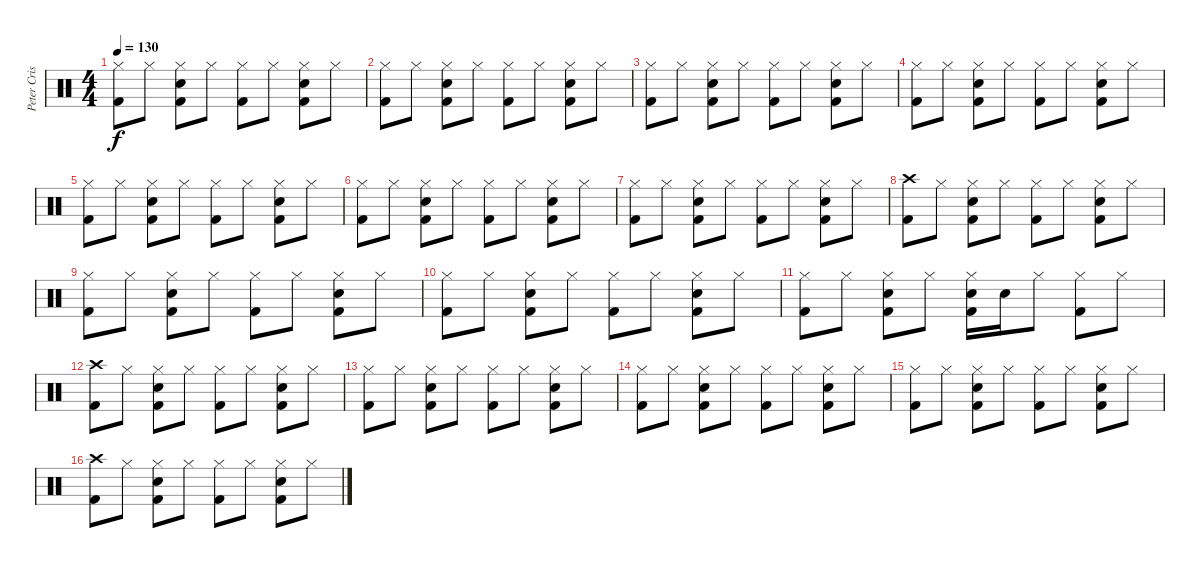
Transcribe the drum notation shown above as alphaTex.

\track ("Peter Criss" "Peter Cris") {instrument percussion}
\staff {score}
\articulation defaults
\ts (4 4)
\tempo 130
\clef neutral
\ks c
("Hi-Hat (closed)" "Kick (hit) 2").8{dy f} "Hi-Hat (closed)".8 ("Hi-Hat (closed)" "Electric Snare (hit)" "Kick (hit) 2").8 "Hi-Hat (closed)".8 ("Hi-Hat (closed)" "Kick (hit) 2").8 "Hi-Hat (closed)".8 ("Hi-Hat (closed)" "Electric Snare (hit)" "Kick (hit) 2").8 "Hi-Hat (closed)".8 |
("Hi-Hat (closed)" "Kick (hit) 2").8 "Hi-Hat (closed)".8 ("Hi-Hat (closed)" "Electric Snare (hit)" "Kick (hit) 2").8 "Hi-Hat (closed)".8 ("Hi-Hat (closed)" "Kick (hit) 2").8 "Hi-Hat (closed)".8 ("Hi-Hat (closed)" "Electric Snare (hit)" "Kick (hit) 2").8 "Hi-Hat (closed)".8 |
("Hi-Hat (closed)" "Kick (hit) 2").8 "Hi-Hat (closed)".8 ("Hi-Hat (closed)" "Electric Snare (hit)" "Kick (hit) 2").8 "Hi-Hat (closed)".8 ("Hi-Hat (closed)" "Kick (hit) 2").8 "Hi-Hat (closed)".8 ("Hi-Hat (closed)" "Electric Snare (hit)" "Kick (hit) 2").8 "Hi-Hat (closed)".8 |
("Hi-Hat (closed)" "Kick (hit) 2").8 "Hi-Hat (closed)".8 ("Hi-Hat (closed)" "Electric Snare (hit)" "Kick (hit) 2").8 "Hi-Hat (closed)".8 ("Hi-Hat (closed)" "Kick (hit) 2").8 "Hi-Hat (closed)".8 ("Hi-Hat (closed)" "Electric Snare (hit)" "Kick (hit) 2").8 "Hi-Hat (closed)".8 |
("Hi-Hat (closed)" "Kick (hit) 2").8 "Hi-Hat (closed)".8 ("Hi-Hat (closed)" "Electric Snare (hit)" "Kick (hit) 2").8 "Hi-Hat (closed)".8 ("Hi-Hat (closed)" "Kick (hit) 2").8 "Hi-Hat (closed)".8 ("Hi-Hat (closed)" "Electric Snare (hit)" "Kick (hit) 2").8 "Hi-Hat (closed)".8 |
("Hi-Hat (closed)" "Kick (hit) 2").8 "Hi-Hat (closed)".8 ("Hi-Hat (closed)" "Electric Snare (hit)" "Kick (hit) 2").8 "Hi-Hat (closed)".8 ("Hi-Hat (closed)" "Kick (hit) 2").8 "Hi-Hat (closed)".8 ("Hi-Hat (closed)" "Electric Snare (hit)" "Kick (hit) 2").8 "Hi-Hat (closed)".8 |
("Hi-Hat (closed)" "Kick (hit) 2").8 "Hi-Hat (closed)".8 ("Hi-Hat (closed)" "Electric Snare (hit)" "Kick (hit) 2").8 "Hi-Hat (closed)".8 ("Hi-Hat (closed)" "Kick (hit) 2").8 "Hi-Hat (closed)".8 ("Hi-Hat (closed)" "Electric Snare (hit)" "Kick (hit) 2").8 "Hi-Hat (closed)".8 |
("Crash high (hit)" "Kick (hit) 2").8 "Hi-Hat (closed)".8 ("Hi-Hat (closed)" "Electric Snare (hit)" "Kick (hit) 2").8 "Hi-Hat (closed)".8 ("Hi-Hat (closed)" "Kick (hit) 2").8 "Hi-Hat (closed)".8 ("Hi-Hat (closed)" "Electric Snare (hit)" "Kick (hit) 2").8 "Hi-Hat (closed)".8 |
("Hi-Hat (closed)" "Kick (hit) 2").8 "Hi-Hat (closed)".8 ("Hi-Hat (closed)" "Electric Snare (hit)" "Kick (hit) 2").8 "Hi-Hat (closed)".8 ("Hi-Hat (closed)" "Kick (hit) 2").8 "Hi-Hat (closed)".8 ("Hi-Hat (closed)" "Electric Snare (hit)" "Kick (hit) 2").8 "Hi-Hat (closed)".8 |
("Hi-Hat (closed)" "Kick (hit) 2").8 "Hi-Hat (closed)".8 ("Hi-Hat (closed)" "Electric Snare (hit)" "Kick (hit) 2").8 "Hi-Hat (closed)".8 ("Hi-Hat (closed)" "Kick (hit) 2").8 "Hi-Hat (closed)".8 ("Hi-Hat (closed)" "Electric Snare (hit)" "Kick (hit) 2").8 "Hi-Hat (closed)".8 |
("Hi-Hat (closed)" "Kick (hit) 2").8 "Hi-Hat (closed)".8 ("Hi-Hat (closed)" "Electric Snare (hit)" "Kick (hit) 2").8 "Hi-Hat (closed)".8 ("Hi-Hat (closed)" "Electric Snare (hit)" "Kick (hit) 2").16 "Electric Snare (hit)".16 "Hi-Hat (closed)".8 ("Hi-Hat (closed)" "Kick (hit) 2").8 "Hi-Hat (closed)".8 |
("Crash high (hit)" "Kick (hit) 2").8 "Hi-Hat (closed)".8 ("Hi-Hat (closed)" "Electric Snare (hit)" "Kick (hit) 2").8 "Hi-Hat (closed)".8 ("Hi-Hat (closed)" "Kick (hit) 2").8 "Hi-Hat (closed)".8 ("Hi-Hat (closed)" "Electric Snare (hit)" "Kick (hit) 2").8 "Hi-Hat (closed)".8 |
("Hi-Hat (closed)" "Kick (hit) 2").8 "Hi-Hat (closed)".8 ("Hi-Hat (closed)" "Electric Snare (hit)" "Kick (hit) 2").8 "Hi-Hat (closed)".8 ("Hi-Hat (closed)" "Kick (hit) 2").8 "Hi-Hat (closed)".8 ("Hi-Hat (closed)" "Electric Snare (hit)" "Kick (hit) 2").8 "Hi-Hat (closed)".8 |
("Hi-Hat (closed)" "Kick (hit) 2").8 "Hi-Hat (closed)".8 ("Hi-Hat (closed)" "Electric Snare (hit)" "Kick (hit) 2").8 "Hi-Hat (closed)".8 ("Hi-Hat (closed)" "Kick (hit) 2").8 "Hi-Hat (closed)".8 ("Hi-Hat (closed)" "Electric Snare (hit)" "Kick (hit) 2").8 "Hi-Hat (closed)".8 |
("Hi-Hat (closed)" "Kick (hit) 2").8 "Hi-Hat (closed)".8 ("Hi-Hat (closed)" "Electric Snare (hit)" "Kick (hit) 2").8 "Hi-Hat (closed)".8 ("Hi-Hat (closed)" "Kick (hit) 2").8 "Hi-Hat (closed)".8 ("Hi-Hat (closed)" "Electric Snare (hit)" "Kick (hit) 2").8 "Hi-Hat (closed)".8 |
("Crash high (hit)" "Kick (hit) 2").8 "Hi-Hat (closed)".8 ("Hi-Hat (closed)" "Electric Snare (hit)" "Kick (hit) 2").8 "Hi-Hat (closed)".8 ("Hi-Hat (closed)" "Kick (hit) 2").8 "Hi-Hat (closed)".8 ("Hi-Hat (closed)" "Electric Snare (hit)" "Kick (hit) 2").8 "Hi-Hat (closed)".8
